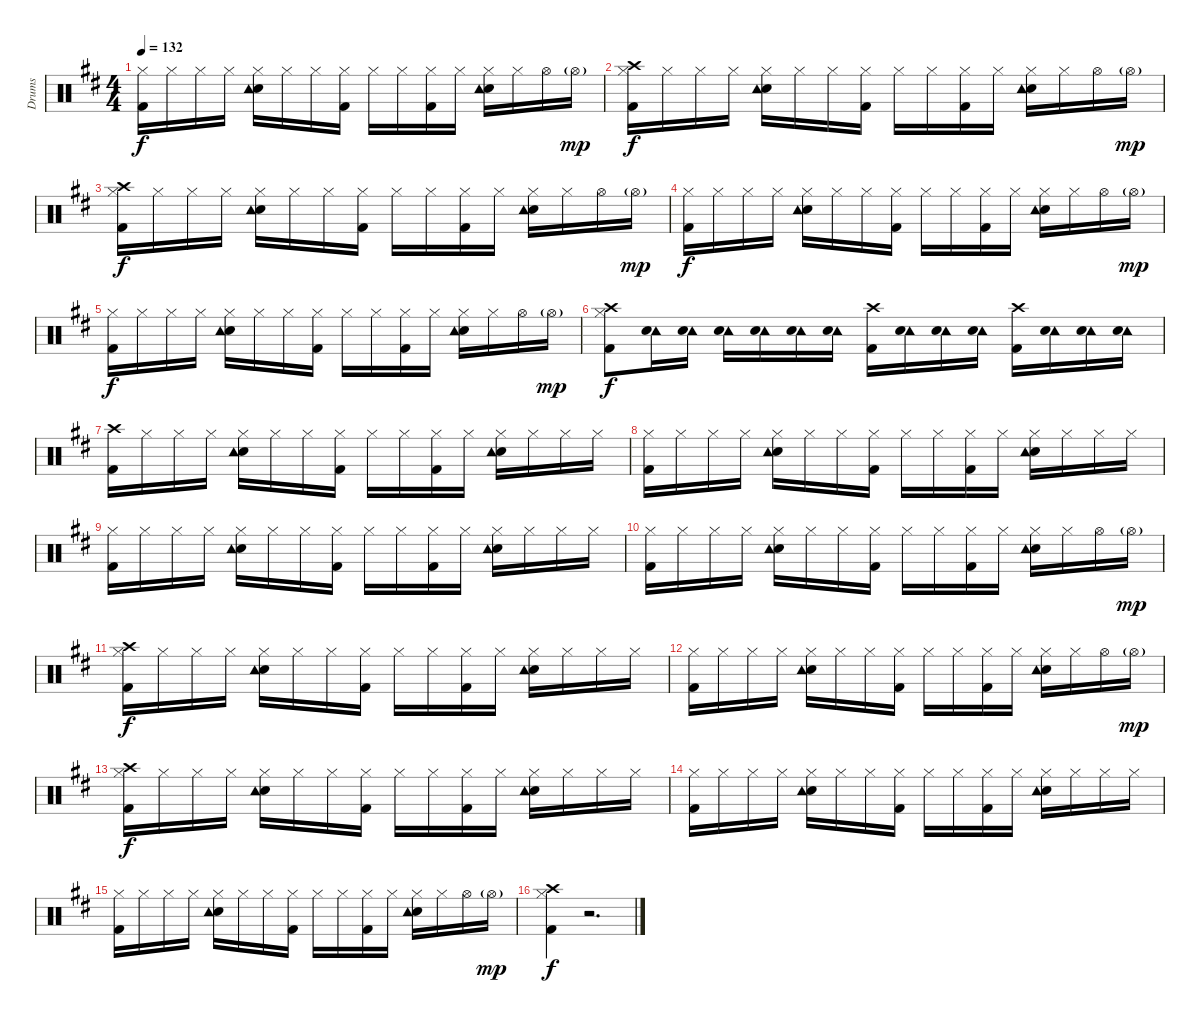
\track ("Drums" "Drums") {instrument percussion}
\staff {score}
\articulation defaults
\ts (4 4)
\tempo 132
\clef neutral
\ks d
("Hi-Hat (closed)" "Kick (hit) 2").16{dy f} "Hi-Hat (closed)".16 "Hi-Hat (closed)".16 "Hi-Hat (closed)".16 ("Hi-Hat (closed)" "Electric Snare (hit)" "Tambourine (hit)").16 "Hi-Hat (closed)".16 "Hi-Hat (closed)".16 ("Hi-Hat (closed)" "Kick (hit) 2").16 "Hi-Hat (closed)".16 "Hi-Hat (closed)".16 ("Hi-Hat (closed)" "Kick (hit) 2").16 "Hi-Hat (closed)".16 ("Hi-Hat (closed)" "Electric Snare (hit)" "Tambourine (hit)").16 "Hi-Hat (closed)".16 "Hi-Hat (open)".16 "Hi-Hat (open)"{g}.16{dy mp} |
("Crash high (hit)" "Hi-Hat (closed)" "Kick (hit) 2").16{dy f} "Hi-Hat (closed)".16 "Hi-Hat (closed)".16 "Hi-Hat (closed)".16 ("Hi-Hat (closed)" "Electric Snare (hit)" "Tambourine (hit)").16 "Hi-Hat (closed)".16 "Hi-Hat (closed)".16 ("Hi-Hat (closed)" "Kick (hit) 2").16 "Hi-Hat (closed)".16 "Hi-Hat (closed)".16 ("Hi-Hat (closed)" "Kick (hit) 2").16 "Hi-Hat (closed)".16 ("Hi-Hat (closed)" "Electric Snare (hit)" "Tambourine (hit)").16 "Hi-Hat (closed)".16 "Hi-Hat (open)".16 "Hi-Hat (open)"{g}.16{dy mp} |
("Crash high (hit)" "Hi-Hat (closed)" "Kick (hit) 2").16{dy f} "Hi-Hat (closed)".16 "Hi-Hat (closed)".16 "Hi-Hat (closed)".16 ("Hi-Hat (closed)" "Electric Snare (hit)" "Tambourine (hit)").16 "Hi-Hat (closed)".16 "Hi-Hat (closed)".16 ("Hi-Hat (closed)" "Kick (hit) 2").16 "Hi-Hat (closed)".16 "Hi-Hat (closed)".16 ("Hi-Hat (closed)" "Kick (hit) 2").16 "Hi-Hat (closed)".16 ("Hi-Hat (closed)" "Electric Snare (hit)" "Tambourine (hit)").16 "Hi-Hat (closed)".16 "Hi-Hat (open)".16 "Hi-Hat (open)"{g}.16{dy mp} |
("Hi-Hat (closed)" "Kick (hit) 2").16{dy f} "Hi-Hat (closed)".16 "Hi-Hat (closed)".16 "Hi-Hat (closed)".16 ("Hi-Hat (closed)" "Electric Snare (hit)" "Tambourine (hit)").16 "Hi-Hat (closed)".16 "Hi-Hat (closed)".16 ("Hi-Hat (closed)" "Kick (hit) 2").16 "Hi-Hat (closed)".16 "Hi-Hat (closed)".16 ("Hi-Hat (closed)" "Kick (hit) 2").16 "Hi-Hat (closed)".16 ("Hi-Hat (closed)" "Electric Snare (hit)" "Tambourine (hit)").16 "Hi-Hat (closed)".16 "Hi-Hat (open)".16 "Hi-Hat (open)"{g}.16{dy mp} |
("Hi-Hat (closed)" "Kick (hit) 2").16{dy f} "Hi-Hat (closed)".16 "Hi-Hat (closed)".16 "Hi-Hat (closed)".16 ("Hi-Hat (closed)" "Electric Snare (hit)" "Tambourine (hit)").16 "Hi-Hat (closed)".16 "Hi-Hat (closed)".16 ("Hi-Hat (closed)" "Kick (hit) 2").16 "Hi-Hat (closed)".16 "Hi-Hat (closed)".16 ("Hi-Hat (closed)" "Kick (hit) 2").16 "Hi-Hat (closed)".16 ("Hi-Hat (closed)" "Electric Snare (hit)" "Tambourine (hit)").16 "Hi-Hat (closed)".16 "Hi-Hat (open)".16 "Hi-Hat (open)"{g}.16{dy mp} |
("Crash high (hit)" "Hi-Hat (closed)" "Kick (hit) 2").8{dy f} ("Tambourine (hit)" "Electric Snare (hit)").16 ("Tambourine (hit)" "Electric Snare (hit)").16 ("Tambourine (hit)" "Electric Snare (hit)").16 ("Tambourine (hit)" "Electric Snare (hit)").16 ("Tambourine (hit)" "Electric Snare (hit)").16 ("Tambourine (hit)" "Electric Snare (hit)").16 ("Crash high (hit)" "Kick (hit) 2").16 ("Tambourine (hit)" "Electric Snare (hit)").16 ("Tambourine (hit)" "Electric Snare (hit)").16 ("Tambourine (hit)" "Electric Snare (hit)").16 ("Crash high (hit)" "Kick (hit) 2").16 ("Tambourine (hit)" "Electric Snare (hit)").16 ("Tambourine (hit)" "Electric Snare (hit)").16 ("Tambourine (hit)" "Electric Snare (hit)").16 |
("Crash high (hit)" "Kick (hit) 2").16 "Hi-Hat (closed)".16 "Hi-Hat (closed)".16 "Hi-Hat (closed)".16 ("Hi-Hat (closed)" "Electric Snare (hit)" "Tambourine (hit)").16 "Hi-Hat (closed)".16 "Hi-Hat (closed)".16 ("Hi-Hat (closed)" "Kick (hit) 2").16 "Hi-Hat (closed)".16 "Hi-Hat (closed)".16 ("Hi-Hat (closed)" "Kick (hit) 2").16 "Hi-Hat (closed)".16 ("Hi-Hat (closed)" "Electric Snare (hit)" "Tambourine (hit)").16 "Hi-Hat (closed)".16 "Hi-Hat (closed)".16 "Hi-Hat (closed)".16 |
("Hi-Hat (closed)" "Kick (hit) 2").16 "Hi-Hat (closed)".16 "Hi-Hat (closed)".16 "Hi-Hat (closed)".16 ("Hi-Hat (closed)" "Electric Snare (hit)" "Tambourine (hit)").16 "Hi-Hat (closed)".16 "Hi-Hat (closed)".16 ("Hi-Hat (closed)" "Kick (hit) 2").16 "Hi-Hat (closed)".16 "Hi-Hat (closed)".16 ("Hi-Hat (closed)" "Kick (hit) 2").16 "Hi-Hat (closed)".16 ("Hi-Hat (closed)" "Electric Snare (hit)" "Tambourine (hit)").16 "Hi-Hat (closed)".16 "Hi-Hat (closed)".16 "Hi-Hat (closed)".16 |
("Hi-Hat (closed)" "Kick (hit) 2").16 "Hi-Hat (closed)".16 "Hi-Hat (closed)".16 "Hi-Hat (closed)".16 ("Hi-Hat (closed)" "Electric Snare (hit)" "Tambourine (hit)").16 "Hi-Hat (closed)".16 "Hi-Hat (closed)".16 ("Hi-Hat (closed)" "Kick (hit) 2").16 "Hi-Hat (closed)".16 "Hi-Hat (closed)".16 ("Hi-Hat (closed)" "Kick (hit) 2").16 "Hi-Hat (closed)".16 ("Hi-Hat (closed)" "Electric Snare (hit)" "Tambourine (hit)").16 "Hi-Hat (closed)".16 "Hi-Hat (closed)".16 "Hi-Hat (closed)".16 |
("Hi-Hat (closed)" "Kick (hit) 2").16 "Hi-Hat (closed)".16 "Hi-Hat (closed)".16 "Hi-Hat (closed)".16 ("Hi-Hat (closed)" "Electric Snare (hit)" "Tambourine (hit)").16 "Hi-Hat (closed)".16 "Hi-Hat (closed)".16 ("Hi-Hat (closed)" "Kick (hit) 2").16 "Hi-Hat (closed)".16 "Hi-Hat (closed)".16 ("Hi-Hat (closed)" "Kick (hit) 2").16 "Hi-Hat (closed)".16 ("Hi-Hat (closed)" "Electric Snare (hit)" "Tambourine (hit)").16 "Hi-Hat (closed)".16 "Hi-Hat (open)".16 "Hi-Hat (open)"{g}.16{dy mp} |
("Crash high (hit)" "Hi-Hat (closed)" "Kick (hit) 2").16{dy f} "Hi-Hat (closed)".16 "Hi-Hat (closed)".16 "Hi-Hat (closed)".16 ("Hi-Hat (closed)" "Electric Snare (hit)" "Tambourine (hit)").16 "Hi-Hat (closed)".16 "Hi-Hat (closed)".16 ("Hi-Hat (closed)" "Kick (hit) 2").16 "Hi-Hat (closed)".16 "Hi-Hat (closed)".16 ("Hi-Hat (closed)" "Kick (hit) 2").16 "Hi-Hat (closed)".16 ("Hi-Hat (closed)" "Electric Snare (hit)" "Tambourine (hit)").16 "Hi-Hat (closed)".16 "Hi-Hat (closed)".16 "Hi-Hat (closed)".16 |
("Hi-Hat (closed)" "Kick (hit) 2").16 "Hi-Hat (closed)".16 "Hi-Hat (closed)".16 "Hi-Hat (closed)".16 ("Hi-Hat (closed)" "Electric Snare (hit)" "Tambourine (hit)").16 "Hi-Hat (closed)".16 "Hi-Hat (closed)".16 ("Hi-Hat (closed)" "Kick (hit) 2").16 "Hi-Hat (closed)".16 "Hi-Hat (closed)".16 ("Hi-Hat (closed)" "Kick (hit) 2").16 "Hi-Hat (closed)".16 ("Hi-Hat (closed)" "Electric Snare (hit)" "Tambourine (hit)").16 "Hi-Hat (closed)".16 "Hi-Hat (open)".16 "Hi-Hat (open)"{g}.16{dy mp} |
("Crash high (hit)" "Hi-Hat (closed)" "Kick (hit) 2").16{dy f} "Hi-Hat (closed)".16 "Hi-Hat (closed)".16 "Hi-Hat (closed)".16 ("Hi-Hat (closed)" "Electric Snare (hit)" "Tambourine (hit)").16 "Hi-Hat (closed)".16 "Hi-Hat (closed)".16 ("Hi-Hat (closed)" "Kick (hit) 2").16 "Hi-Hat (closed)".16 "Hi-Hat (closed)".16 ("Hi-Hat (closed)" "Kick (hit) 2").16 "Hi-Hat (closed)".16 ("Hi-Hat (closed)" "Electric Snare (hit)" "Tambourine (hit)").16 "Hi-Hat (closed)".16 "Hi-Hat (closed)".16 "Hi-Hat (closed)".16 |
("Hi-Hat (closed)" "Kick (hit) 2").16 "Hi-Hat (closed)".16 "Hi-Hat (closed)".16 "Hi-Hat (closed)".16 ("Hi-Hat (closed)" "Electric Snare (hit)" "Tambourine (hit)").16 "Hi-Hat (closed)".16 "Hi-Hat (closed)".16 ("Hi-Hat (closed)" "Kick (hit) 2").16 "Hi-Hat (closed)".16 "Hi-Hat (closed)".16 ("Hi-Hat (closed)" "Kick (hit) 2").16 "Hi-Hat (closed)".16 ("Hi-Hat (closed)" "Electric Snare (hit)" "Tambourine (hit)").16 "Hi-Hat (closed)".16 "Hi-Hat (closed)".16 "Hi-Hat (closed)".16 |
("Hi-Hat (closed)" "Kick (hit) 2").16 "Hi-Hat (closed)".16 "Hi-Hat (closed)".16 "Hi-Hat (closed)".16 ("Hi-Hat (closed)" "Electric Snare (hit)" "Tambourine (hit)").16 "Hi-Hat (closed)".16 "Hi-Hat (closed)".16 ("Hi-Hat (closed)" "Kick (hit) 2").16 "Hi-Hat (closed)".16 "Hi-Hat (closed)".16 ("Hi-Hat (closed)" "Kick (hit) 2").16 "Hi-Hat (closed)".16 ("Hi-Hat (closed)" "Electric Snare (hit)" "Tambourine (hit)").16 "Hi-Hat (closed)".16 "Hi-Hat (open)".16 "Hi-Hat (open)"{g}.16{dy mp} |
("Crash high (hit)" "Hi-Hat (closed)" "Kick (hit) 2").4{dy f volume 0} r.2{d}
